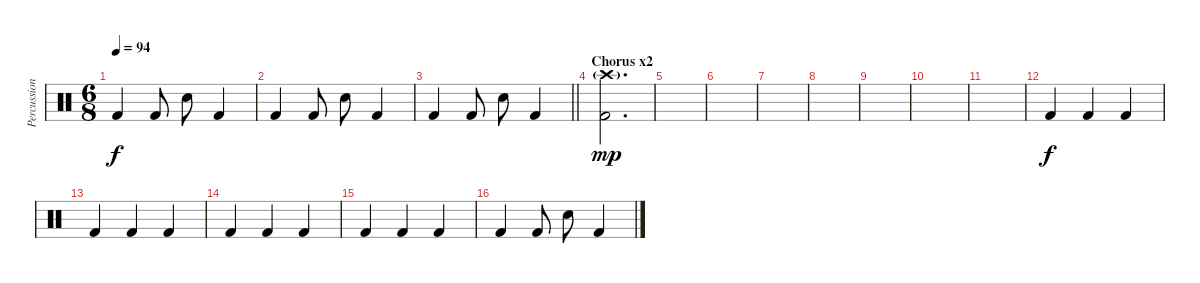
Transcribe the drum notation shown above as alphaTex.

\track ("Percussion" "Percussion") {instrument percussion}
\staff {score}
\articulation defaults
\ts (6 8)
\tempo 94
\clef neutral
\ks c "Kick (hit) 2".4{dy f} "Kick (hit) 2".8 "Snare (hit) 2".8 "Kick (hit) 2".4
|
"Kick (hit) 2".4 "Kick (hit) 2".8 "Snare (hit) 2".8 "Kick (hit) 2".4 |
\barLineRight lightlight "Kick (hit) 2".4 "Kick (hit) 2".8 "Snare (hit) 2".8 "Kick (hit) 2".4
|
\section ("" "Chorus x2")
("Crash high (hit)"{g} "Kick (hit) 2").2{d dy mp} |
|
|
|
|
|
|
|
"Kick (hit) 2".4{dy f} "Kick (hit) 2".4 "Kick (hit) 2".4 |
"Kick (hit) 2".4 "Kick (hit) 2".4 "Kick (hit) 2".4 |
"Kick (hit) 2".4 "Kick (hit) 2".4 "Kick (hit) 2".4 |
"Kick (hit) 2".4 "Kick (hit) 2".4 "Kick (hit) 2".4 |
"Kick (hit) 2".4 "Kick (hit) 2".8 "Snare (hit) 2".8 "Kick (hit) 2".4
